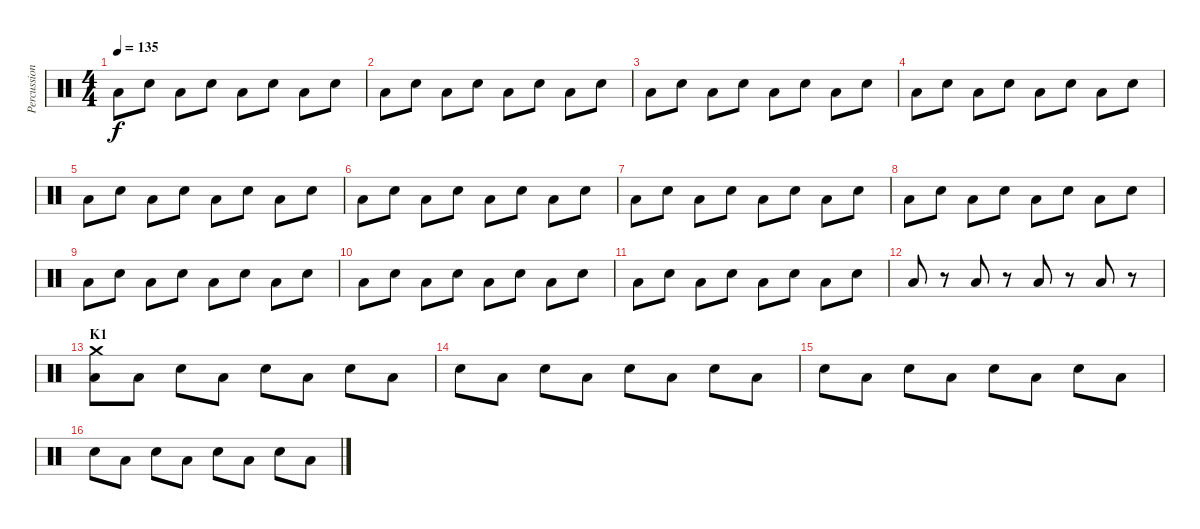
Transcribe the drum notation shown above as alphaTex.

\track ("Percussion" "Percussion") {instrument percussion}
\staff {score}
\articulation defaults
\ts (4 4)
\tempo 135
\clef neutral
\ks c "Low Floor Tom (hit)".8{dy f} "Electric Snare (hit)".8 "Low Floor Tom (hit)".8 "Electric Snare (hit)".8 "Low Floor Tom (hit)".8 "Electric Snare (hit)".8 "Low Floor Tom (hit)".8 "Electric Snare (hit)".8
|
"Low Floor Tom (hit)".8 "Electric Snare (hit)".8 "Low Floor Tom (hit)".8 "Electric Snare (hit)".8 "Low Floor Tom (hit)".8 "Electric Snare (hit)".8 "Low Floor Tom (hit)".8 "Electric Snare (hit)".8 |
"Low Floor Tom (hit)".8 "Electric Snare (hit)".8 "Low Floor Tom (hit)".8 "Electric Snare (hit)".8 "Low Floor Tom (hit)".8 "Electric Snare (hit)".8 "Low Floor Tom (hit)".8 "Electric Snare (hit)".8 |
"Low Floor Tom (hit)".8 "Electric Snare (hit)".8 "Low Floor Tom (hit)".8 "Electric Snare (hit)".8 "Low Floor Tom (hit)".8 "Electric Snare (hit)".8 "Low Floor Tom (hit)".8 "Electric Snare (hit)".8 |
"Low Floor Tom (hit)".8 "Electric Snare (hit)".8 "Low Floor Tom (hit)".8 "Electric Snare (hit)".8 "Low Floor Tom (hit)".8 "Electric Snare (hit)".8 "Low Floor Tom (hit)".8 "Electric Snare (hit)".8 |
"Low Floor Tom (hit)".8 "Electric Snare (hit)".8 "Low Floor Tom (hit)".8 "Electric Snare (hit)".8 "Low Floor Tom (hit)".8 "Electric Snare (hit)".8 "Low Floor Tom (hit)".8 "Electric Snare (hit)".8 |
"Low Floor Tom (hit)".8 "Electric Snare (hit)".8 "Low Floor Tom (hit)".8 "Electric Snare (hit)".8 "Low Floor Tom (hit)".8 "Electric Snare (hit)".8 "Low Floor Tom (hit)".8 "Electric Snare (hit)".8 |
"Low Floor Tom (hit)".8 "Electric Snare (hit)".8 "Low Floor Tom (hit)".8 "Electric Snare (hit)".8 "Low Floor Tom (hit)".8 "Electric Snare (hit)".8 "Low Floor Tom (hit)".8 "Electric Snare (hit)".8 |
"Low Floor Tom (hit)".8 "Electric Snare (hit)".8 "Low Floor Tom (hit)".8 "Electric Snare (hit)".8 "Low Floor Tom (hit)".8 "Electric Snare (hit)".8 "Low Floor Tom (hit)".8 "Electric Snare (hit)".8 |
"Low Floor Tom (hit)".8 "Electric Snare (hit)".8 "Low Floor Tom (hit)".8 "Electric Snare (hit)".8 "Low Floor Tom (hit)".8 "Electric Snare (hit)".8 "Low Floor Tom (hit)".8 "Electric Snare (hit)".8 |
"Low Floor Tom (hit)".8 "Electric Snare (hit)".8 "Low Floor Tom (hit)".8 "Electric Snare (hit)".8 "Low Floor Tom (hit)".8 "Electric Snare (hit)".8 "Low Floor Tom (hit)".8 "Electric Snare (hit)".8 |
"Low Floor Tom (hit)".8 r.8 "Low Floor Tom (hit)".8 r.8 "Low Floor Tom (hit)".8 r.8 "Low Floor Tom (hit)".8 r.8 |
\section ("" "K1")
("Low Floor Tom (hit)" "Crash medium (hit)").8 "Low Floor Tom (hit)".8 "Electric Snare (hit)".8 "Low Floor Tom (hit)".8 "Electric Snare (hit)".8 "Low Floor Tom (hit)".8 "Electric Snare (hit)".8 "Low Floor Tom (hit)".8 |
"Electric Snare (hit)".8 "Low Floor Tom (hit)".8 "Electric Snare (hit)".8 "Low Floor Tom (hit)".8 "Electric Snare (hit)".8 "Low Floor Tom (hit)".8 "Electric Snare (hit)".8 "Low Floor Tom (hit)".8 |
"Electric Snare (hit)".8 "Low Floor Tom (hit)".8 "Electric Snare (hit)".8 "Low Floor Tom (hit)".8 "Electric Snare (hit)".8 "Low Floor Tom (hit)".8 "Electric Snare (hit)".8 "Low Floor Tom (hit)".8 |
"Electric Snare (hit)".8 "Low Floor Tom (hit)".8 "Electric Snare (hit)".8 "Low Floor Tom (hit)".8 "Electric Snare (hit)".8 "Low Floor Tom (hit)".8 "Electric Snare (hit)".8 "Low Floor Tom (hit)".8
